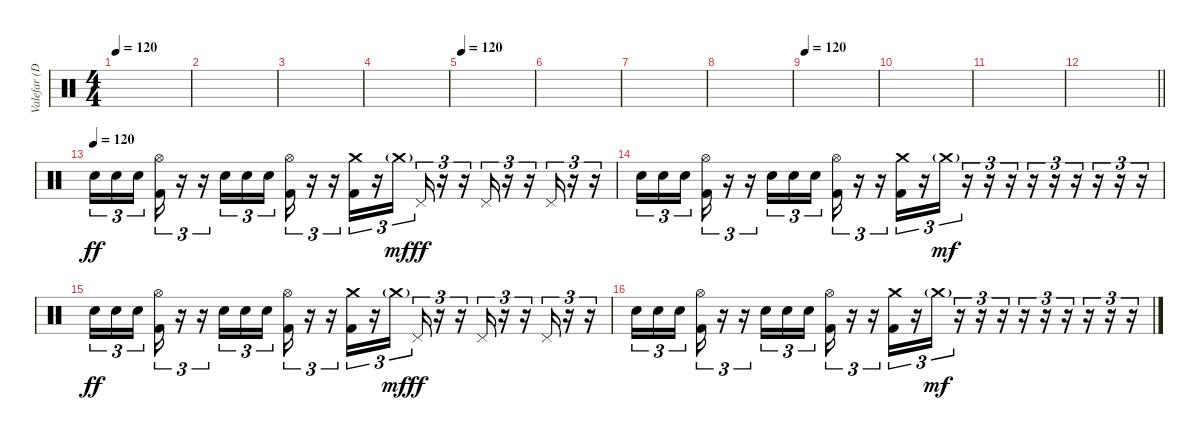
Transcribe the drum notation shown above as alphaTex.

\track ("Valefar (Drums)" "Valefar (D") {instrument percussion}
\staff {score}
\articulation defaults
\ts (4 4)
\tempo 120
\clef neutral
\ks c
|
|
|
|
\tempo 120
|
|
|
|
\tempo 120
|
|
|
\barLineRight lightlight
|
\tempo (120)
"Electric Snare (hit)".16{tu (3 2) dy ff} "Electric Snare (hit)".16{tu (3 2)} "Electric Snare (hit)".16{tu (3 2) beam splitsecondary} ("Hi-Hat (open)" "Kick (hit) 2").16{tu (3 2)} r.16{tu (3 2)} r.16{tu (3 2)} "Electric Snare (hit)".16{tu (3 2)} "Electric Snare (hit)".16{tu (3 2)} "Electric Snare (hit)".16{tu (3 2) beam splitsecondary} ("Hi-Hat (open)" "Kick (hit) 2").16{tu (3 2)} r.16{tu (3 2)} r.16{tu (3 2)} ("Crash medium (hit)" "Kick (hit) 2").16{tu (3 2)} r.16{tu (3 2)} "Crash medium (hit)"{g}.16{tu (3 2) dy mf} "Pedal Hi-Hat (hit)".16{tu (3 2) dy ff} r.16{tu (3 2)} r.16{tu (3 2)} "Pedal Hi-Hat (hit)".16{tu (3 2)} r.16{tu (3 2)} r.16{tu (3 2)} "Pedal Hi-Hat (hit)".16{tu (3 2)} r.16{tu (3 2)} r.16{tu (3 2)} |
"Electric Snare (hit)".16{tu (3 2)} "Electric Snare (hit)".16{tu (3 2)} "Electric Snare (hit)".16{tu (3 2) beam splitsecondary} ("Hi-Hat (open)" "Kick (hit) 2").16{tu (3 2)} r.16{tu (3 2)} r.16{tu (3 2)} "Electric Snare (hit)".16{tu (3 2)} "Electric Snare (hit)".16{tu (3 2)} "Electric Snare (hit)".16{tu (3 2) beam splitsecondary} ("Hi-Hat (open)" "Kick (hit) 2").16{tu (3 2)} r.16{tu (3 2)} r.16{tu (3 2)} ("Crash medium (hit)" "Kick (hit) 2").16{tu (3 2)} r.16{tu (3 2)} "Crash medium (hit)"{g}.16{tu (3 2) dy mf} r.16{tu (3 2)} r.16{tu (3 2)} r.16{tu (3 2)} r.16{tu (3 2)} r.16{tu (3 2)} r.16{tu (3 2)} r.16{tu (3 2)} r.16{tu (3 2)} r.16{tu (3 2)} |
"Electric Snare (hit)".16{tu (3 2) dy ff} "Electric Snare (hit)".16{tu (3 2)} "Electric Snare (hit)".16{tu (3 2) beam splitsecondary} ("Hi-Hat (open)" "Kick (hit) 2").16{tu (3 2)} r.16{tu (3 2)} r.16{tu (3 2)} "Electric Snare (hit)".16{tu (3 2)} "Electric Snare (hit)".16{tu (3 2)} "Electric Snare (hit)".16{tu (3 2) beam splitsecondary} ("Hi-Hat (open)" "Kick (hit) 2").16{tu (3 2)} r.16{tu (3 2)} r.16{tu (3 2)} ("Crash medium (hit)" "Kick (hit) 2").16{tu (3 2)} r.16{tu (3 2)} "Crash medium (hit)"{g}.16{tu (3 2) dy mf} "Pedal Hi-Hat (hit)".16{tu (3 2) dy ff} r.16{tu (3 2)} r.16{tu (3 2)} "Pedal Hi-Hat (hit)".16{tu (3 2)} r.16{tu (3 2)} r.16{tu (3 2)} "Pedal Hi-Hat (hit)".16{tu (3 2)} r.16{tu (3 2)} r.16{tu (3 2)} |
"Electric Snare (hit)".16{tu (3 2)} "Electric Snare (hit)".16{tu (3 2)} "Electric Snare (hit)".16{tu (3 2) beam splitsecondary} ("Hi-Hat (open)" "Kick (hit) 2").16{tu (3 2)} r.16{tu (3 2)} r.16{tu (3 2)} "Electric Snare (hit)".16{tu (3 2)} "Electric Snare (hit)".16{tu (3 2)} "Electric Snare (hit)".16{tu (3 2) beam splitsecondary} ("Hi-Hat (open)" "Kick (hit) 2").16{tu (3 2)} r.16{tu (3 2)} r.16{tu (3 2)} ("Crash medium (hit)" "Kick (hit) 2").16{tu (3 2)} r.16{tu (3 2)} "Crash medium (hit)"{g}.16{tu (3 2) dy mf} r.16{tu (3 2)} r.16{tu (3 2)} r.16{tu (3 2)} r.16{tu (3 2)} r.16{tu (3 2)} r.16{tu (3 2)} r.16{tu (3 2)} r.16{tu (3 2)} r.16{tu (3 2)}
